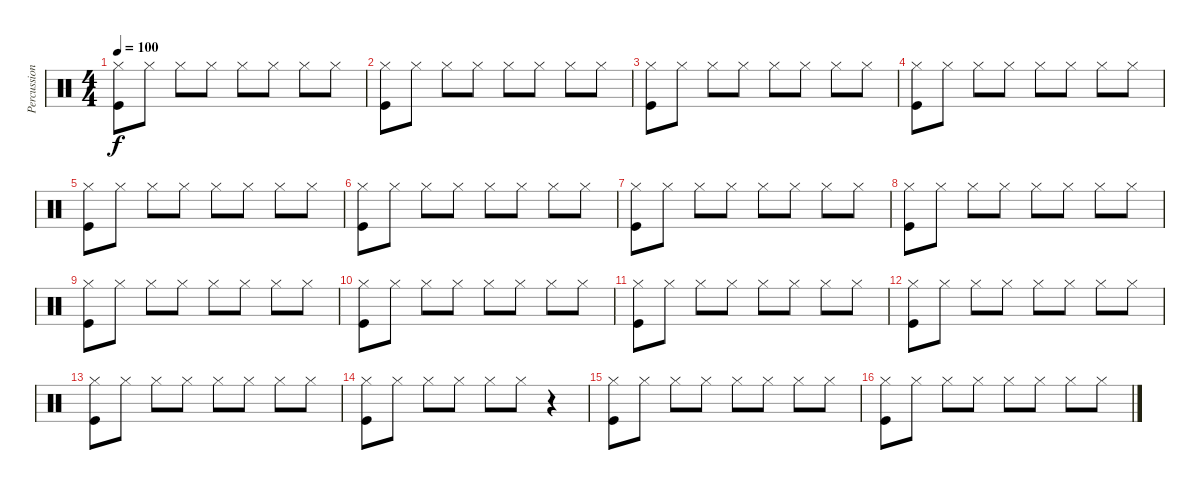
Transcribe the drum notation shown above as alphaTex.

\track ("Percussion" "Percussion") {instrument percussion}
\staff {score}
\articulation defaults
\ts (4 4)
\tempo 100
\clef neutral
\ks c
("Hi-Hat (closed)" "Kick (hit)").8{dy f} "Hi-Hat (closed)".8 "Hi-Hat (closed)".8 "Hi-Hat (closed)".8 "Hi-Hat (closed)".8 "Hi-Hat (closed)".8 "Hi-Hat (closed)".8 "Hi-Hat (closed)".8 |
("Hi-Hat (closed)" "Kick (hit)").8 "Hi-Hat (closed)".8 "Hi-Hat (closed)".8 "Hi-Hat (closed)".8 "Hi-Hat (closed)".8 "Hi-Hat (closed)".8 "Hi-Hat (closed)".8 "Hi-Hat (closed)".8 |
("Hi-Hat (closed)" "Kick (hit)").8 "Hi-Hat (closed)".8 "Hi-Hat (closed)".8 "Hi-Hat (closed)".8 "Hi-Hat (closed)".8 "Hi-Hat (closed)".8 "Hi-Hat (closed)".8 "Hi-Hat (closed)".8 |
("Hi-Hat (closed)" "Kick (hit)").8 "Hi-Hat (closed)".8 "Hi-Hat (closed)".8 "Hi-Hat (closed)".8 "Hi-Hat (closed)".8 "Hi-Hat (closed)".8 "Hi-Hat (closed)".8 "Hi-Hat (closed)".8 |
("Hi-Hat (closed)" "Kick (hit)").8 "Hi-Hat (closed)".8 "Hi-Hat (closed)".8 "Hi-Hat (closed)".8 "Hi-Hat (closed)".8 "Hi-Hat (closed)".8 "Hi-Hat (closed)".8 "Hi-Hat (closed)".8 |
("Hi-Hat (closed)" "Kick (hit)").8 "Hi-Hat (closed)".8 "Hi-Hat (closed)".8 "Hi-Hat (closed)".8 "Hi-Hat (closed)".8 "Hi-Hat (closed)".8 "Hi-Hat (closed)".8 "Hi-Hat (closed)".8 |
("Hi-Hat (closed)" "Kick (hit)").8 "Hi-Hat (closed)".8 "Hi-Hat (closed)".8 "Hi-Hat (closed)".8 "Hi-Hat (closed)".8 "Hi-Hat (closed)".8 "Hi-Hat (closed)".8 "Hi-Hat (closed)".8 |
("Hi-Hat (closed)" "Kick (hit)").8 "Hi-Hat (closed)".8 "Hi-Hat (closed)".8 "Hi-Hat (closed)".8 "Hi-Hat (closed)".8 "Hi-Hat (closed)".8 "Hi-Hat (closed)".8 "Hi-Hat (closed)".8 |
("Hi-Hat (closed)" "Kick (hit)").8 "Hi-Hat (closed)".8 "Hi-Hat (closed)".8 "Hi-Hat (closed)".8 "Hi-Hat (closed)".8 "Hi-Hat (closed)".8 "Hi-Hat (closed)".8 "Hi-Hat (closed)".8 |
("Hi-Hat (closed)" "Kick (hit)").8 "Hi-Hat (closed)".8 "Hi-Hat (closed)".8 "Hi-Hat (closed)".8 "Hi-Hat (closed)".8 "Hi-Hat (closed)".8 "Hi-Hat (closed)".8 "Hi-Hat (closed)".8 |
("Hi-Hat (closed)" "Kick (hit)").8 "Hi-Hat (closed)".8 "Hi-Hat (closed)".8 "Hi-Hat (closed)".8 "Hi-Hat (closed)".8 "Hi-Hat (closed)".8 "Hi-Hat (closed)".8 "Hi-Hat (closed)".8 |
("Hi-Hat (closed)" "Kick (hit)").8 "Hi-Hat (closed)".8 "Hi-Hat (closed)".8 "Hi-Hat (closed)".8 "Hi-Hat (closed)".8 "Hi-Hat (closed)".8 "Hi-Hat (closed)".8 "Hi-Hat (closed)".8 |
("Hi-Hat (closed)" "Kick (hit)").8 "Hi-Hat (closed)".8 "Hi-Hat (closed)".8 "Hi-Hat (closed)".8 "Hi-Hat (closed)".8 "Hi-Hat (closed)".8 "Hi-Hat (closed)".8 "Hi-Hat (closed)".8 |
("Hi-Hat (closed)" "Kick (hit)").8 "Hi-Hat (closed)".8 "Hi-Hat (closed)".8 "Hi-Hat (closed)".8 "Hi-Hat (closed)".8 "Hi-Hat (closed)".8 r.4 |
("Hi-Hat (closed)" "Kick (hit)").8 "Hi-Hat (closed)".8 "Hi-Hat (closed)".8 "Hi-Hat (closed)".8 "Hi-Hat (closed)".8 "Hi-Hat (closed)".8 "Hi-Hat (closed)".8 "Hi-Hat (closed)".8 |
("Hi-Hat (closed)" "Kick (hit)").8 "Hi-Hat (closed)".8 "Hi-Hat (closed)".8 "Hi-Hat (closed)".8 "Hi-Hat (closed)".8 "Hi-Hat (closed)".8 "Hi-Hat (closed)".8 "Hi-Hat (closed)".8
